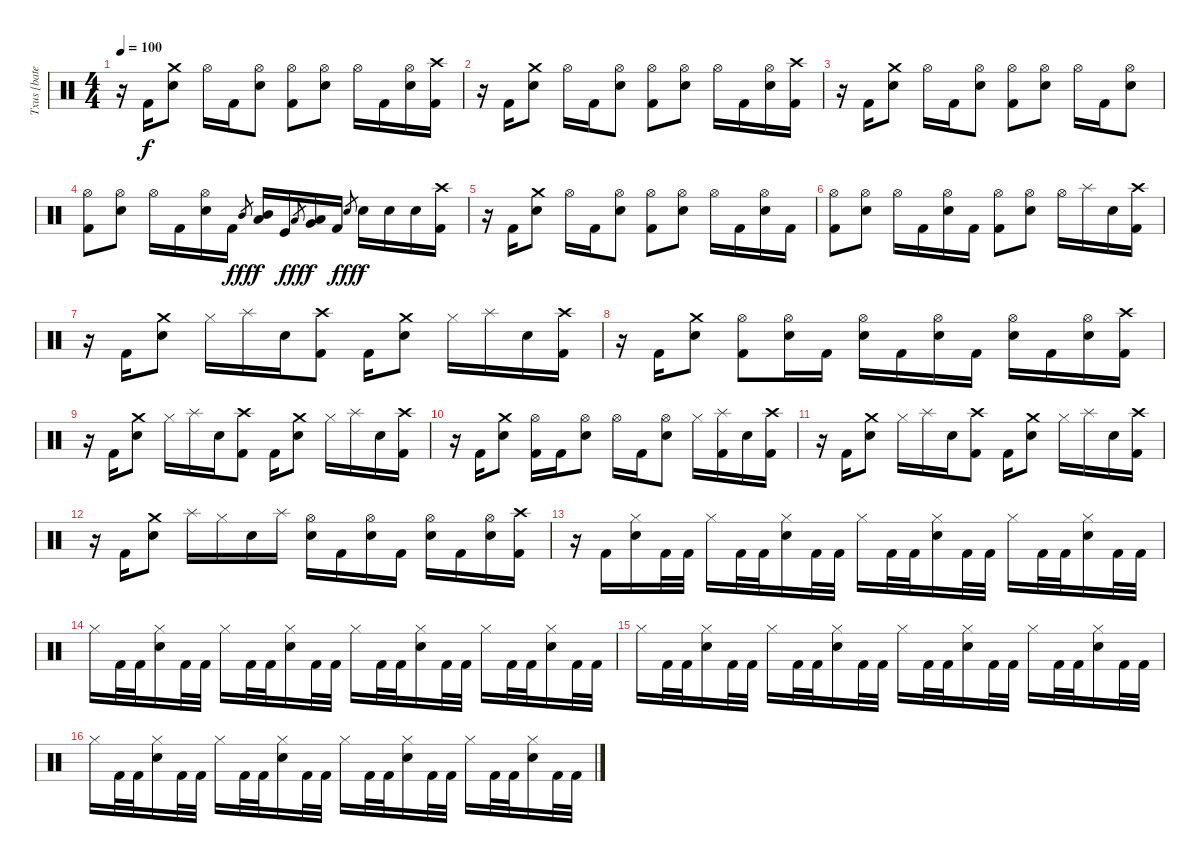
\track ("Txus [bateria]" "Txus [bate") {instrument percussion}
\staff {score}
\articulation defaults
\ts (4 4)
\tempo 100
\clef neutral
\ks c
r.16{dy f} "Kick (hit) 2".16 ("Crash medium (hit)" "Snare (hit) 2").8 "Hi-Hat (open)".16 "Kick (hit) 2".16 ("Hi-Hat (open)" "Snare (hit) 2").8 ("Hi-Hat (open)" "Kick (hit) 2").8 ("Hi-Hat (open)" "Snare (hit) 2").8 "Hi-Hat (open)".16 "Kick (hit) 2".16 ("Hi-Hat (open)" "Snare (hit) 2").16 ("Crash high (hit)" "Kick (hit) 2").16 |
r.16 "Kick (hit) 2".16 ("Crash medium (hit)" "Snare (hit) 2").8 "Hi-Hat (open)".16 "Kick (hit) 2".16 ("Hi-Hat (open)" "Snare (hit) 2").8 ("Hi-Hat (open)" "Kick (hit) 2").8 ("Hi-Hat (open)" "Snare (hit) 2").8 "Hi-Hat (open)".16 "Kick (hit) 2".16 ("Hi-Hat (open)" "Snare (hit) 2").16 ("Crash high (hit)" "Kick (hit) 2").16 |
r.16 "Kick (hit) 2".16 ("Crash medium (hit)" "Snare (hit) 2").8 "Hi-Hat (open)".16 "Kick (hit) 2".16 ("Hi-Hat (open)" "Snare (hit) 2").8 ("Hi-Hat (open)" "Kick (hit) 2").8 ("Hi-Hat (open)" "Snare (hit) 2").8 "Hi-Hat (open)".16 "Kick (hit) 2".16 ("Hi-Hat (open)" "Snare (hit) 2").8 |
("Hi-Hat (open)" "Kick (hit) 2").8 ("Hi-Hat (open)" "Snare (hit) 2").8 "Hi-Hat (open)".16 "Kick (hit) 2".16 ("Hi-Hat (open)" "Snare (hit) 2").16 "Kick (hit) 2".16 "Mid Tom (hit)".8{gr dy fff} ("Mid Tom (hit)" "Low Tom (hit)").16{dy f} "Kick (hit)".16 "Low Tom (hit)".8{gr dy fff} ("Low Tom (hit)" "Very Low Tom (hit)").16{dy f} "Kick (hit) 2".16 "Snare (hit) 2".8{gr dy fff} "Snare (hit) 2".16{dy f} "Snare (hit) 2".16 "Snare (hit) 2".16 ("Crash high (hit)" "Kick (hit) 2").16 |
r.16 "Kick (hit) 2".16 ("Crash medium (hit)" "Snare (hit) 2").8 "Hi-Hat (open)".16 "Kick (hit) 2".16 ("Hi-Hat (open)" "Snare (hit) 2").8 ("Hi-Hat (open)" "Kick (hit) 2").8 ("Hi-Hat (open)" "Snare (hit) 2").8 "Hi-Hat (open)".16 "Kick (hit) 2".16 ("Hi-Hat (open)" "Snare (hit) 2").16 "Kick (hit) 2".16 |
("Hi-Hat (open)" "Kick (hit) 2").8 ("Hi-Hat (open)" "Snare (hit) 2").8 "Hi-Hat (open)".16 "Kick (hit) 2".16 ("Hi-Hat (open)" "Snare (hit) 2").16 "Kick (hit) 2".16 ("Hi-Hat (open)" "Kick (hit) 2").8 ("Hi-Hat (open)" "Snare (hit) 2").8 "Hi-Hat (open)".16 "Splash (hit)".16 "Snare (hit) 2".16 ("Crash high (hit)" "Kick (hit) 2").16 |
r.16 "Kick (hit) 2".16 ("Crash medium (hit)" "Snare (hit) 2").8 "Hi-Hat (closed)".16 "Splash (hit)".16 "Snare (hit) 2".16 ("Crash high (hit)" "Kick (hit) 2").8 "Kick (hit) 2".16 ("Crash medium (hit)" "Snare (hit) 2").8 "Hi-Hat (closed)".16 "Splash (hit)".16 "Snare (hit) 2".16 ("Crash high (hit)" "Kick (hit) 2").16 |
r.16 "Kick (hit) 2".16 ("Crash medium (hit)" "Snare (hit) 2").8 ("Hi-Hat (open)" "Kick (hit) 2").8 ("Hi-Hat (open)" "Snare (hit) 2").16 "Kick (hit) 2".16 ("Hi-Hat (open)" "Snare (hit) 2").16 "Kick (hit) 2".16 ("Hi-Hat (open)" "Snare (hit) 2").16 "Kick (hit) 2".16 ("Hi-Hat (open)" "Snare (hit) 2").16 "Kick (hit) 2".16 ("Hi-Hat (open)" "Snare (hit) 2").16 ("Crash high (hit)" "Kick (hit) 2").16 |
r.16 "Kick (hit) 2".16 ("Crash medium (hit)" "Snare (hit) 2").8 "Hi-Hat (closed)".16 "Splash (hit)".16 "Snare (hit) 2".16 ("Crash high (hit)" "Kick (hit) 2").8 "Kick (hit) 2".16 ("Crash medium (hit)" "Snare (hit) 2").8 "Hi-Hat (closed)".16 "Splash (hit)".16 "Snare (hit) 2".16 ("Crash high (hit)" "Kick (hit) 2").16 |
r.16 "Kick (hit) 2".16 ("Crash medium (hit)" "Snare (hit) 2").8 ("Hi-Hat (open)" "Kick (hit) 2").16 "Kick (hit) 2".16 ("Hi-Hat (open)" "Snare (hit) 2").8 "Hi-Hat (open)".16 "Kick (hit) 2".16 ("Hi-Hat (open)" "Snare (hit) 2").8 "Hi-Hat (closed)".16 ("Splash (hit)" "Kick (hit) 2").16 "Snare (hit) 2".16 ("Crash high (hit)" "Kick (hit) 2").16 |
r.16 "Kick (hit) 2".16 ("Crash medium (hit)" "Snare (hit) 2").8 "Hi-Hat (closed)".16 "Splash (hit)".16 "Snare (hit) 2".16 ("Crash high (hit)" "Kick (hit) 2").8 "Kick (hit) 2".16 ("Crash medium (hit)" "Snare (hit) 2").8 "Hi-Hat (closed)".16 "Splash (hit)".16 "Snare (hit) 2".16 ("Crash high (hit)" "Kick (hit) 2").16 |
r.16 "Kick (hit) 2".16 ("Crash medium (hit)" "Snare (hit) 2").8 "Splash (hit)".16 "Hi-Hat (closed)".16 "Snare (hit) 2".16 "Splash (hit)".16 ("Hi-Hat (open)" "Snare (hit) 2").16 "Kick (hit) 2".16 ("Hi-Hat (open)" "Snare (hit) 2").16 "Kick (hit) 2".16 ("Hi-Hat (open)" "Snare (hit) 2").16 "Kick (hit) 2".16 ("Hi-Hat (open)" "Snare (hit) 2").16 ("Crash high (hit)" "Kick (hit) 2").16 |
r.16 "Kick (hit) 2".16 ("Hi-Hat (closed)" "Snare (hit) 2").16 "Kick (hit) 2".32 "Kick (hit) 2".32 "Hi-Hat (closed)".16 "Kick (hit) 2".32 "Kick (hit) 2".32 ("Hi-Hat (closed)" "Snare (hit) 2").16 "Kick (hit) 2".32 "Kick (hit) 2".32 "Hi-Hat (closed)".16 "Kick (hit) 2".32 "Kick (hit) 2".32 ("Hi-Hat (closed)" "Snare (hit) 2").16 "Kick (hit) 2".32 "Kick (hit) 2".32 "Hi-Hat (closed)".16 "Kick (hit) 2".32 "Kick (hit) 2".32 ("Hi-Hat (closed)" "Snare (hit) 2").16 "Kick (hit) 2".32 "Kick (hit) 2".32 |
"Hi-Hat (closed)".16 "Kick (hit) 2".32 "Kick (hit) 2".32 ("Hi-Hat (closed)" "Snare (hit) 2").16 "Kick (hit) 2".32 "Kick (hit) 2".32 "Hi-Hat (closed)".16 "Kick (hit) 2".32 "Kick (hit) 2".32 ("Hi-Hat (closed)" "Snare (hit) 2").16 "Kick (hit) 2".32 "Kick (hit) 2".32 "Hi-Hat (closed)".16 "Kick (hit) 2".32 "Kick (hit) 2".32 ("Hi-Hat (closed)" "Snare (hit) 2").16 "Kick (hit) 2".32 "Kick (hit) 2".32 "Hi-Hat (closed)".16 "Kick (hit) 2".32 "Kick (hit) 2".32 ("Hi-Hat (closed)" "Snare (hit) 2").16 "Kick (hit) 2".32 "Kick (hit) 2".32 |
"Hi-Hat (closed)".16 "Kick (hit) 2".32 "Kick (hit) 2".32 ("Hi-Hat (closed)" "Snare (hit) 2").16 "Kick (hit) 2".32 "Kick (hit) 2".32 "Hi-Hat (closed)".16 "Kick (hit) 2".32 "Kick (hit) 2".32 ("Hi-Hat (closed)" "Snare (hit) 2").16 "Kick (hit) 2".32 "Kick (hit) 2".32 "Hi-Hat (closed)".16 "Kick (hit) 2".32 "Kick (hit) 2".32 ("Hi-Hat (closed)" "Snare (hit) 2").16 "Kick (hit) 2".32 "Kick (hit) 2".32 "Hi-Hat (closed)".16 "Kick (hit) 2".32 "Kick (hit) 2".32 ("Hi-Hat (closed)" "Snare (hit) 2").16 "Kick (hit) 2".32 "Kick (hit) 2".32 |
"Hi-Hat (closed)".16 "Kick (hit) 2".32 "Kick (hit) 2".32 ("Hi-Hat (closed)" "Snare (hit) 2").16 "Kick (hit) 2".32 "Kick (hit) 2".32 "Hi-Hat (closed)".16 "Kick (hit) 2".32 "Kick (hit) 2".32 ("Hi-Hat (closed)" "Snare (hit) 2").16 "Kick (hit) 2".32 "Kick (hit) 2".32 "Hi-Hat (closed)".16 "Kick (hit) 2".32 "Kick (hit) 2".32 ("Hi-Hat (closed)" "Snare (hit) 2").16 "Kick (hit) 2".32 "Kick (hit) 2".32 "Hi-Hat (closed)".16 "Kick (hit) 2".32 "Kick (hit) 2".32 ("Hi-Hat (closed)" "Snare (hit) 2").16 "Kick (hit) 2".32 "Kick (hit) 2".32
